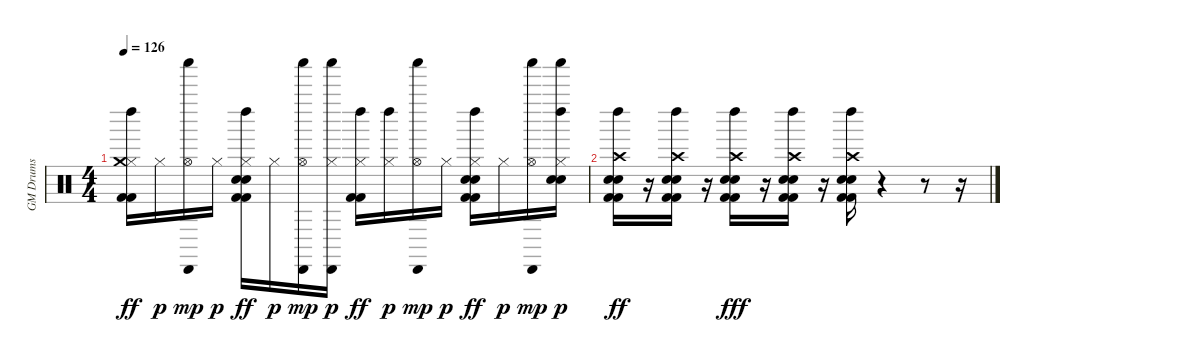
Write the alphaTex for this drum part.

\track ("GM Drums" "GM Drums") {instrument percussion}
\staff {score}
\articulation defaults
\ts (4 4)
\tempo 126
\clef neutral
\ks c
("Kick (hit) 2" "Kick (hit) 2" "Hi-Hat (closed)" "Crash medium (hit)" "Left Maraca (hit)").16{dy ff} "Hi-Hat (closed)".16{dy p} ("Hi-Hat (open)" "Cabasa (hit)" "Shaker (hit)").16{dy mp} "Hi-Hat (closed)".16{dy p} ("Kick (hit) 2" "Kick (hit) 2" "Hand Clap (hit)" "Electric Snare (hit)" "Hi-Hat (closed)" "Left Maraca (hit)").16{dy ff} "Hi-Hat (closed)".16{dy p} ("Hi-Hat (open)" "Cabasa (hit)" "Shaker (hit)").16{dy mp} ("Hi-Hat (closed)" "Cabasa (hit)" "Shaker (hit)").16{dy p} ("Kick (hit) 2" "Kick (hit) 2" "Hi-Hat (closed)" "Left Maraca (hit)").16{dy ff} ("Hi-Hat (closed)" "Left Maraca (hit)").16{dy p} ("Hi-Hat (open)" "Cabasa (hit)" "Shaker (hit)").16{dy mp} "Hi-Hat (closed)".16{dy p} ("Kick (hit) 2" "Kick (hit) 2" "Hand Clap (hit)" "Electric Snare (hit)" "Hi-Hat (closed)" "Left Maraca (hit)").16{dy ff} "Hi-Hat (closed)".16{dy p} ("Hi-Hat (open)" "Cabasa (hit)" "Shaker (hit)").16{dy mp} ("Hand Clap (hit)" "Electric Snare (hit)" "Hi-Hat (closed)" "Left Maraca (hit)" "Shaker (hit)").16{dy p} |
("Kick (hit) 2" "Kick (hit) 2" "Hand Clap (hit)" "Electric Snare (hit)" "Crash high (hit)" "Left Maraca (hit)").16{dy ff} r.16 ("Kick (hit) 2" "Kick (hit) 2" "Hand Clap (hit)" "Electric Snare (hit)" "Crash high (hit)" "Left Maraca (hit)").16 r.16 ("Kick (hit) 2" "Kick (hit) 2" "Hand Clap (hit)" "Electric Snare (hit)" "Crash high (hit)" "Left Maraca (hit)").16{dy fff} r.16 ("Kick (hit) 2" "Kick (hit) 2" "Hand Clap (hit)" "Electric Snare (hit)" "Crash high (hit)" "Left Maraca (hit)").16 r.16 ("Kick (hit) 2" "Kick (hit) 2" "Hand Clap (hit)" "Electric Snare (hit)" "Crash high (hit)" "Left Maraca (hit)").16 r.4 r.8 r.16
